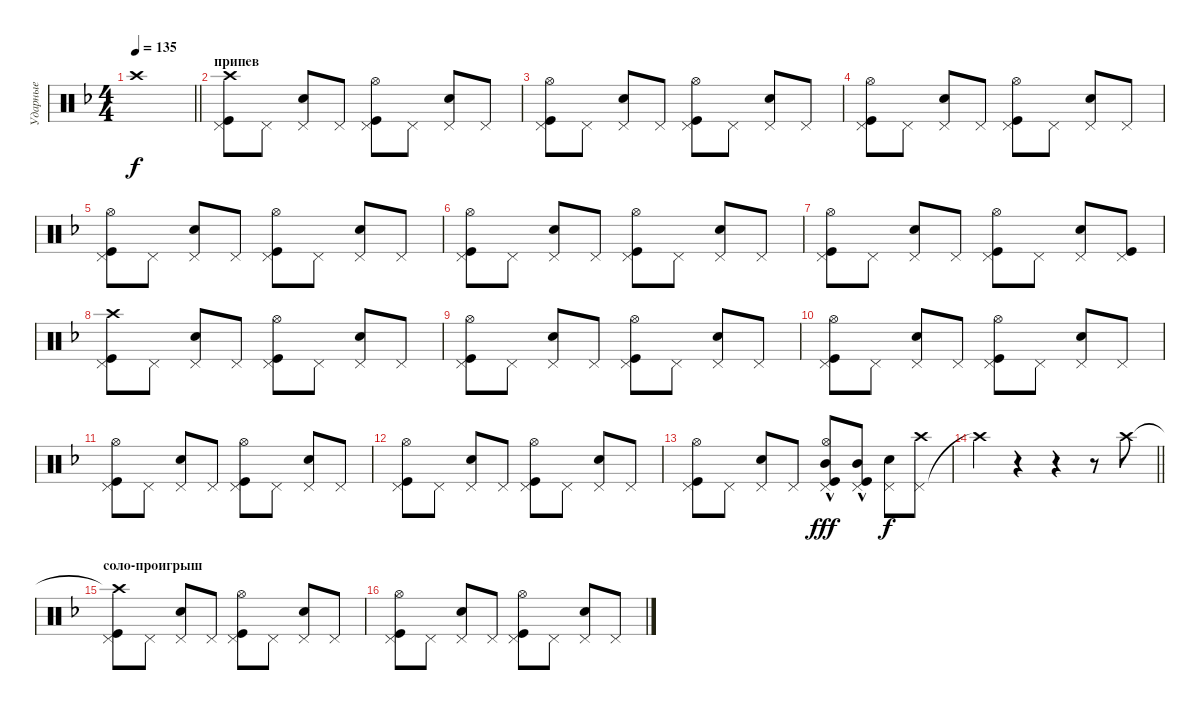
\track ("Ударные" "Ударные") {instrument percussion}
\staff {score}
\articulation defaults
\ts (4 4)
\tempo 135
\clef neutral
\barLineRight lightlight
\ks dminor "Crash high (hit)"{t}.1{dy f}
|
\section ("" "припев")
("Pedal Hi-Hat (hit)" "Kick (hit)" "Crash high (hit)").8 "Pedal Hi-Hat (hit)".8 ("Pedal Hi-Hat (hit)" "Snare (hit) 2").8 "Pedal Hi-Hat (hit)".8 ("Pedal Hi-Hat (hit)" "Kick (hit)" "Hi-Hat (open)").8 "Pedal Hi-Hat (hit)".8 ("Pedal Hi-Hat (hit)" "Snare (hit) 2").8 "Pedal Hi-Hat (hit)".8 |
("Pedal Hi-Hat (hit)" "Kick (hit)" "Hi-Hat (open)").8 "Pedal Hi-Hat (hit)".8 ("Pedal Hi-Hat (hit)" "Snare (hit) 2").8 "Pedal Hi-Hat (hit)".8 ("Pedal Hi-Hat (hit)" "Kick (hit)" "Hi-Hat (open)").8 "Pedal Hi-Hat (hit)".8 ("Pedal Hi-Hat (hit)" "Snare (hit) 2").8 "Pedal Hi-Hat (hit)".8 |
("Pedal Hi-Hat (hit)" "Kick (hit)" "Hi-Hat (open)").8 "Pedal Hi-Hat (hit)".8 ("Pedal Hi-Hat (hit)" "Snare (hit) 2").8 "Pedal Hi-Hat (hit)".8 ("Pedal Hi-Hat (hit)" "Kick (hit)" "Hi-Hat (open)").8 "Pedal Hi-Hat (hit)".8 ("Pedal Hi-Hat (hit)" "Snare (hit) 2").8 "Pedal Hi-Hat (hit)".8 |
("Pedal Hi-Hat (hit)" "Kick (hit)" "Hi-Hat (open)").8 "Pedal Hi-Hat (hit)".8 ("Pedal Hi-Hat (hit)" "Snare (hit) 2").8 "Pedal Hi-Hat (hit)".8 ("Pedal Hi-Hat (hit)" "Kick (hit)" "Hi-Hat (open)").8 "Pedal Hi-Hat (hit)".8 ("Pedal Hi-Hat (hit)" "Snare (hit) 2").8 "Pedal Hi-Hat (hit)".8 |
("Pedal Hi-Hat (hit)" "Kick (hit)" "Hi-Hat (open)").8 "Pedal Hi-Hat (hit)".8 ("Pedal Hi-Hat (hit)" "Snare (hit) 2").8 "Pedal Hi-Hat (hit)".8 ("Pedal Hi-Hat (hit)" "Kick (hit)" "Hi-Hat (open)").8 "Pedal Hi-Hat (hit)".8 ("Pedal Hi-Hat (hit)" "Snare (hit) 2").8 "Pedal Hi-Hat (hit)".8 |
("Pedal Hi-Hat (hit)" "Kick (hit)" "Hi-Hat (open)").8 "Pedal Hi-Hat (hit)".8 ("Pedal Hi-Hat (hit)" "Snare (hit) 2").8 "Pedal Hi-Hat (hit)".8 ("Pedal Hi-Hat (hit)" "Kick (hit)" "Hi-Hat (open)").8 "Pedal Hi-Hat (hit)".8 ("Pedal Hi-Hat (hit)" "Snare (hit) 2").8 ("Pedal Hi-Hat (hit)" "Kick (hit)").8 |
("Pedal Hi-Hat (hit)" "Kick (hit)" "Crash high (hit)").8 "Pedal Hi-Hat (hit)".8 ("Pedal Hi-Hat (hit)" "Snare (hit) 2").8 "Pedal Hi-Hat (hit)".8 ("Pedal Hi-Hat (hit)" "Kick (hit)" "Hi-Hat (open)").8 "Pedal Hi-Hat (hit)".8 ("Pedal Hi-Hat (hit)" "Snare (hit) 2").8 "Pedal Hi-Hat (hit)".8 |
("Pedal Hi-Hat (hit)" "Kick (hit)" "Hi-Hat (open)").8 "Pedal Hi-Hat (hit)".8 ("Pedal Hi-Hat (hit)" "Snare (hit) 2").8 "Pedal Hi-Hat (hit)".8 ("Pedal Hi-Hat (hit)" "Kick (hit)" "Hi-Hat (open)").8 "Pedal Hi-Hat (hit)".8 ("Pedal Hi-Hat (hit)" "Snare (hit) 2").8 "Pedal Hi-Hat (hit)".8 |
("Pedal Hi-Hat (hit)" "Kick (hit)" "Hi-Hat (open)").8 "Pedal Hi-Hat (hit)".8 ("Pedal Hi-Hat (hit)" "Snare (hit) 2").8 "Pedal Hi-Hat (hit)".8 ("Pedal Hi-Hat (hit)" "Kick (hit)" "Hi-Hat (open)").8 "Pedal Hi-Hat (hit)".8 ("Pedal Hi-Hat (hit)" "Snare (hit) 2").8 "Pedal Hi-Hat (hit)".8 |
("Pedal Hi-Hat (hit)" "Kick (hit)" "Hi-Hat (open)").8 "Pedal Hi-Hat (hit)".8 ("Pedal Hi-Hat (hit)" "Snare (hit) 2").8 "Pedal Hi-Hat (hit)".8 ("Pedal Hi-Hat (hit)" "Kick (hit)" "Hi-Hat (open)").8 "Pedal Hi-Hat (hit)".8 ("Pedal Hi-Hat (hit)" "Snare (hit) 2").8 "Pedal Hi-Hat (hit)".8 |
("Pedal Hi-Hat (hit)" "Kick (hit)" "Hi-Hat (open)").8 "Pedal Hi-Hat (hit)".8 ("Pedal Hi-Hat (hit)" "Snare (hit) 2").8 "Pedal Hi-Hat (hit)".8 ("Pedal Hi-Hat (hit)" "Kick (hit)" "Hi-Hat (open)").8 "Pedal Hi-Hat (hit)".8 ("Pedal Hi-Hat (hit)" "Snare (hit) 2").8 "Pedal Hi-Hat (hit)".8 |
("Pedal Hi-Hat (hit)" "Kick (hit)" "Hi-Hat (open)").8 "Pedal Hi-Hat (hit)".8 ("Pedal Hi-Hat (hit)" "Snare (hit) 2").8 "Pedal Hi-Hat (hit)".8 ("Pedal Hi-Hat (hit)" "Kick (hit)" "Hi-Hat (open)" "Mid Tom (hit)"{hac}).8{dy fff} ("Pedal Hi-Hat (hit)" "Kick (hit)" "Mid Tom (hit)"{hac}).8 ("Pedal Hi-Hat (hit)" "Snare (hit) 2").8{dy f} ("Pedal Hi-Hat (hit)" "Crash high (hit)").8 |
\barLineRight lightlight "Crash high (hit)"{t}.4
r.4 r.4 r.8 "Crash high (hit)".8 |
\section ("" "соло-проигрыш")
("Crash high (hit)"{t} "Pedal Hi-Hat (hit)" "Kick (hit)").8 "Pedal Hi-Hat (hit)".8 ("Pedal Hi-Hat (hit)" "Snare (hit) 2").8 "Pedal Hi-Hat (hit)".8 ("Pedal Hi-Hat (hit)" "Kick (hit)" "Hi-Hat (open)").8 "Pedal Hi-Hat (hit)".8 ("Pedal Hi-Hat (hit)" "Snare (hit) 2").8 "Pedal Hi-Hat (hit)".8 |
("Pedal Hi-Hat (hit)" "Kick (hit)" "Hi-Hat (open)").8 "Pedal Hi-Hat (hit)".8 ("Pedal Hi-Hat (hit)" "Snare (hit) 2").8 "Pedal Hi-Hat (hit)".8 ("Pedal Hi-Hat (hit)" "Kick (hit)" "Hi-Hat (open)").8 "Pedal Hi-Hat (hit)".8 ("Pedal Hi-Hat (hit)" "Snare (hit) 2").8 "Pedal Hi-Hat (hit)".8
